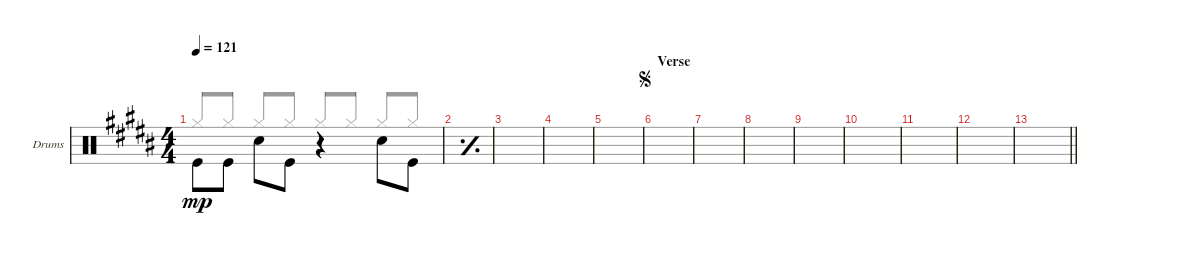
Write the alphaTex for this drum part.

\defaultSystemsLayout 4
\bracketExtendMode groupsimilarinstruments
\firstSystemTrackNameOrientation horizontal
\otherSystemsTrackNameOrientation horizontal
\track ("Drums" "Drums") {instrument percussion}
\staff {score}
\articulation defaults
\voice
\ts (4 4)
\tempo 121
\clef neutral
\ks b "Kick (hit)".8{dy mp beam invert} "Kick (hit)".8 "Snare (hit) 2".8{beam invert} "Kick (hit)".8
r.4{beam invert} "Snare (hit) 2".8{beam invert} "Kick (hit)".8 |
\simile simple
|
|
|
|
\section ("" "Verse")
\jump segno
|
|
|
|
|
|
|
\barLineRight lightlight
|
|
|
\voice
\clef neutral
\ottava regular
\simile none
\ks b "Hi-Hat (closed)".8{dy mp beam invert} "Hi-Hat (closed)".8 "Hi-Hat (closed)".8{beam invert} "Hi-Hat (closed)".8 "Hi-Hat (closed)".8{beam invert} "Hi-Hat (closed)".8 "Hi-Hat (closed)".8{beam invert} "Hi-Hat (closed)".8
|
\simile simple
|
|
|
|
|
|
|
|
|
|
|
\barLineRight lightlight
|
|
|
